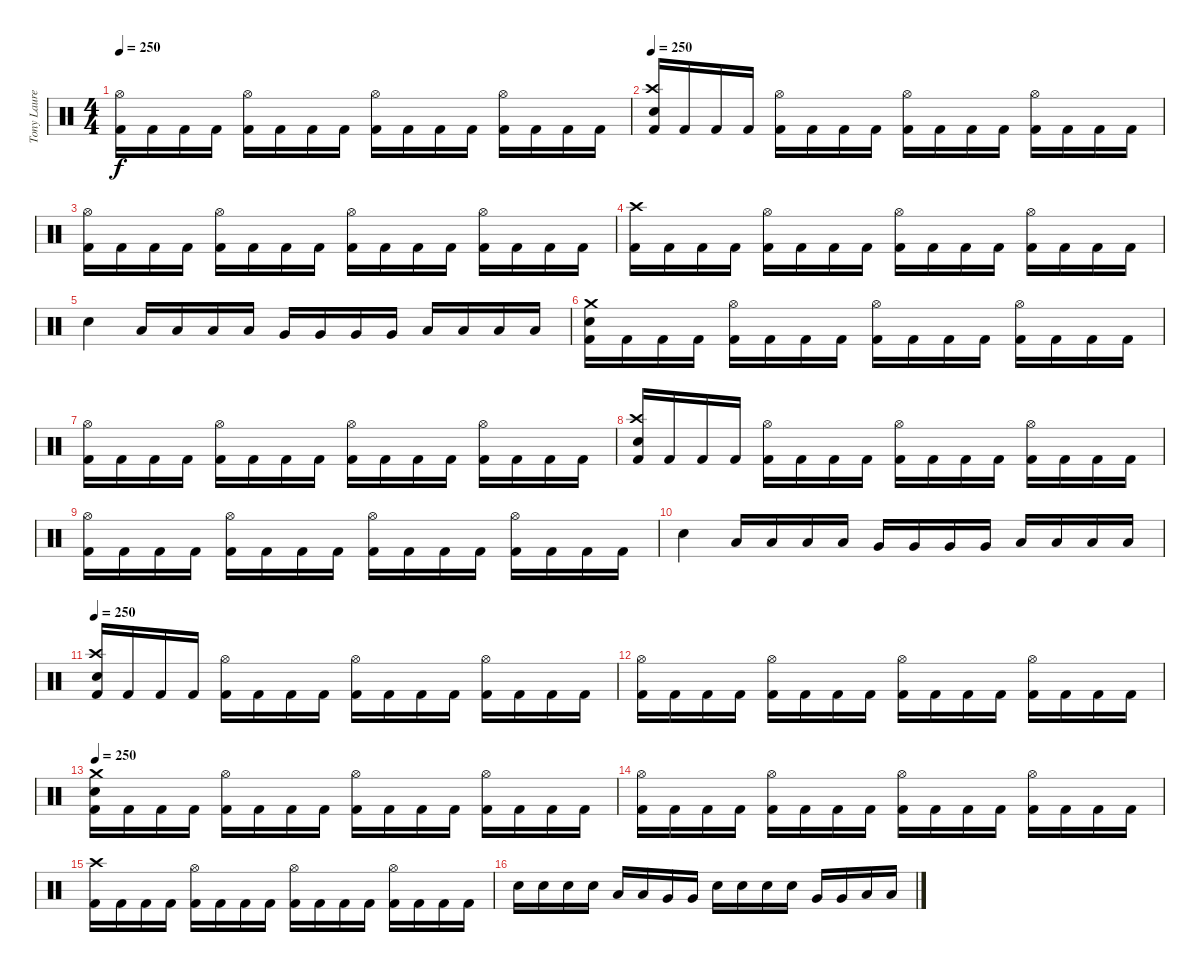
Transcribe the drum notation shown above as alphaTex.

\track ("Tony Laureano" "Tony Laure") {instrument percussion}
\staff {score}
\articulation defaults
\ts (4 4)
\tempo 250
\clef neutral
\ks c
("Hi-Hat (open)" "Kick (hit) 2").16{dy f} "Kick (hit) 2".16 "Kick (hit) 2".16 "Kick (hit) 2".16 ("Hi-Hat (open)" "Kick (hit) 2").16 "Kick (hit) 2".16 "Kick (hit) 2".16 "Kick (hit) 2".16 ("Hi-Hat (open)" "Kick (hit) 2").16 "Kick (hit) 2".16 "Kick (hit) 2".16 "Kick (hit) 2".16 ("Hi-Hat (open)" "Kick (hit) 2").16 "Kick (hit) 2".16 "Kick (hit) 2".16 "Kick (hit) 2".16 |
\tempo 250
("Crash high (hit)" "Electric Snare (hit)" "Kick (hit) 2").16 "Kick (hit) 2".16 "Kick (hit) 2".16 "Kick (hit) 2".16 ("Hi-Hat (open)" "Kick (hit) 2").16 "Kick (hit) 2".16 "Kick (hit) 2".16 "Kick (hit) 2".16 ("Hi-Hat (open)" "Kick (hit) 2").16 "Kick (hit) 2".16 "Kick (hit) 2".16 "Kick (hit) 2".16 ("Hi-Hat (open)" "Kick (hit) 2").16 "Kick (hit) 2".16 "Kick (hit) 2".16 "Kick (hit) 2".16 |
("Hi-Hat (open)" "Kick (hit) 2").16 "Kick (hit) 2".16 "Kick (hit) 2".16 "Kick (hit) 2".16 ("Hi-Hat (open)" "Kick (hit) 2").16 "Kick (hit) 2".16 "Kick (hit) 2".16 "Kick (hit) 2".16 ("Hi-Hat (open)" "Kick (hit) 2").16 "Kick (hit) 2".16 "Kick (hit) 2".16 "Kick (hit) 2".16 ("Hi-Hat (open)" "Kick (hit) 2").16 "Kick (hit) 2".16 "Kick (hit) 2".16 "Kick (hit) 2".16 |
("Crash high (hit)" "Kick (hit) 2").16 "Kick (hit) 2".16 "Kick (hit) 2".16 "Kick (hit) 2".16 ("Hi-Hat (open)" "Kick (hit) 2").16 "Kick (hit) 2".16 "Kick (hit) 2".16 "Kick (hit) 2".16 ("Hi-Hat (open)" "Kick (hit) 2").16 "Kick (hit) 2".16 "Kick (hit) 2".16 "Kick (hit) 2".16 ("Hi-Hat (open)" "Kick (hit) 2").16 "Kick (hit) 2".16 "Kick (hit) 2".16 "Kick (hit) 2".16 |
"Electric Snare (hit)".4 "Low Tom (hit)".16 "Low Tom (hit)".16 "Low Tom (hit)".16 "Low Tom (hit)".16 "Very Low Tom (hit)".16 "Very Low Tom (hit)".16 "Very Low Tom (hit)".16 "Very Low Tom (hit)".16 "Low Floor Tom (hit)".16 "Low Floor Tom (hit)".16 "Low Floor Tom (hit)".16 "Low Floor Tom (hit)".16 |
("Crash medium (hit)" "Electric Snare (hit)" "Kick (hit) 2").16 "Kick (hit) 2".16 "Kick (hit) 2".16 "Kick (hit) 2".16 ("Hi-Hat (open)" "Kick (hit) 2").16 "Kick (hit) 2".16 "Kick (hit) 2".16 "Kick (hit) 2".16 ("Hi-Hat (open)" "Kick (hit) 2").16 "Kick (hit) 2".16 "Kick (hit) 2".16 "Kick (hit) 2".16 ("Hi-Hat (open)" "Kick (hit) 2").16 "Kick (hit) 2".16 "Kick (hit) 2".16 "Kick (hit) 2".16 |
("Hi-Hat (open)" "Kick (hit) 2").16 "Kick (hit) 2".16 "Kick (hit) 2".16 "Kick (hit) 2".16 ("Hi-Hat (open)" "Kick (hit) 2").16 "Kick (hit) 2".16 "Kick (hit) 2".16 "Kick (hit) 2".16 ("Hi-Hat (open)" "Kick (hit) 2").16 "Kick (hit) 2".16 "Kick (hit) 2".16 "Kick (hit) 2".16 ("Hi-Hat (open)" "Kick (hit) 2").16 "Kick (hit) 2".16 "Kick (hit) 2".16 "Kick (hit) 2".16 |
("Crash high (hit)" "Electric Snare (hit)" "Kick (hit) 2").16 "Kick (hit) 2".16 "Kick (hit) 2".16 "Kick (hit) 2".16 ("Hi-Hat (open)" "Kick (hit) 2").16 "Kick (hit) 2".16 "Kick (hit) 2".16 "Kick (hit) 2".16 ("Hi-Hat (open)" "Kick (hit) 2").16 "Kick (hit) 2".16 "Kick (hit) 2".16 "Kick (hit) 2".16 ("Hi-Hat (open)" "Kick (hit) 2").16 "Kick (hit) 2".16 "Kick (hit) 2".16 "Kick (hit) 2".16 |
("Hi-Hat (open)" "Kick (hit) 2").16 "Kick (hit) 2".16 "Kick (hit) 2".16 "Kick (hit) 2".16 ("Hi-Hat (open)" "Kick (hit) 2").16 "Kick (hit) 2".16 "Kick (hit) 2".16 "Kick (hit) 2".16 ("Hi-Hat (open)" "Kick (hit) 2").16 "Kick (hit) 2".16 "Kick (hit) 2".16 "Kick (hit) 2".16 ("Hi-Hat (open)" "Kick (hit) 2").16 "Kick (hit) 2".16 "Kick (hit) 2".16 "Kick (hit) 2".16 |
"Electric Snare (hit)".4 "Low Tom (hit)".16 "Low Tom (hit)".16 "Low Tom (hit)".16 "Low Tom (hit)".16 "Very Low Tom (hit)".16 "Very Low Tom (hit)".16 "Very Low Tom (hit)".16 "Very Low Tom (hit)".16 "Low Floor Tom (hit)".16 "Low Floor Tom (hit)".16 "Low Floor Tom (hit)".16 "Low Floor Tom (hit)".16 |
\tempo 250
("Crash high (hit)" "Electric Snare (hit)" "Kick (hit) 2").16 "Kick (hit) 2".16 "Kick (hit) 2".16 "Kick (hit) 2".16 ("Hi-Hat (open)" "Kick (hit) 2").16 "Kick (hit) 2".16 "Kick (hit) 2".16 "Kick (hit) 2".16 ("Hi-Hat (open)" "Kick (hit) 2").16 "Kick (hit) 2".16 "Kick (hit) 2".16 "Kick (hit) 2".16 ("Hi-Hat (open)" "Kick (hit) 2").16 "Kick (hit) 2".16 "Kick (hit) 2".16 "Kick (hit) 2".16 |
("Hi-Hat (open)" "Kick (hit) 2").16 "Kick (hit) 2".16 "Kick (hit) 2".16 "Kick (hit) 2".16 ("Hi-Hat (open)" "Kick (hit) 2").16 "Kick (hit) 2".16 "Kick (hit) 2".16 "Kick (hit) 2".16 ("Hi-Hat (open)" "Kick (hit) 2").16 "Kick (hit) 2".16 "Kick (hit) 2".16 "Kick (hit) 2".16 ("Hi-Hat (open)" "Kick (hit) 2").16 "Kick (hit) 2".16 "Kick (hit) 2".16 "Kick (hit) 2".16 |
\tempo 250
("Crash medium (hit)" "Electric Snare (hit)" "Kick (hit) 2").16 "Kick (hit) 2".16 "Kick (hit) 2".16 "Kick (hit) 2".16 ("Hi-Hat (open)" "Kick (hit) 2").16 "Kick (hit) 2".16 "Kick (hit) 2".16 "Kick (hit) 2".16 ("Hi-Hat (open)" "Kick (hit) 2").16 "Kick (hit) 2".16 "Kick (hit) 2".16 "Kick (hit) 2".16 ("Hi-Hat (open)" "Kick (hit) 2").16 "Kick (hit) 2".16 "Kick (hit) 2".16 "Kick (hit) 2".16 |
("Hi-Hat (open)" "Kick (hit) 2").16 "Kick (hit) 2".16 "Kick (hit) 2".16 "Kick (hit) 2".16 ("Hi-Hat (open)" "Kick (hit) 2").16 "Kick (hit) 2".16 "Kick (hit) 2".16 "Kick (hit) 2".16 ("Hi-Hat (open)" "Kick (hit) 2").16 "Kick (hit) 2".16 "Kick (hit) 2".16 "Kick (hit) 2".16 ("Hi-Hat (open)" "Kick (hit) 2").16 "Kick (hit) 2".16 "Kick (hit) 2".16 "Kick (hit) 2".16 |
("Crash high (hit)" "Kick (hit) 2").16 "Kick (hit) 2".16 "Kick (hit) 2".16 "Kick (hit) 2".16 ("Hi-Hat (open)" "Kick (hit) 2").16 "Kick (hit) 2".16 "Kick (hit) 2".16 "Kick (hit) 2".16 ("Hi-Hat (open)" "Kick (hit) 2").16 "Kick (hit) 2".16 "Kick (hit) 2".16 "Kick (hit) 2".16 ("Hi-Hat (open)" "Kick (hit) 2").16 "Kick (hit) 2".16 "Kick (hit) 2".16 "Kick (hit) 2".16 |
"Electric Snare (hit)".16 "Electric Snare (hit)".16 "Electric Snare (hit)".16 "Electric Snare (hit)".16 "Low Tom (hit)".16 "Low Tom (hit)".16 "Very Low Tom (hit)".16 "Very Low Tom (hit)".16 "Electric Snare (hit)".16 "Electric Snare (hit)".16 "Electric Snare (hit)".16 "Electric Snare (hit)".16 "Very Low Tom (hit)".16 "Very Low Tom (hit)".16 "Low Floor Tom (hit)".16 "Low Floor Tom (hit)".16
